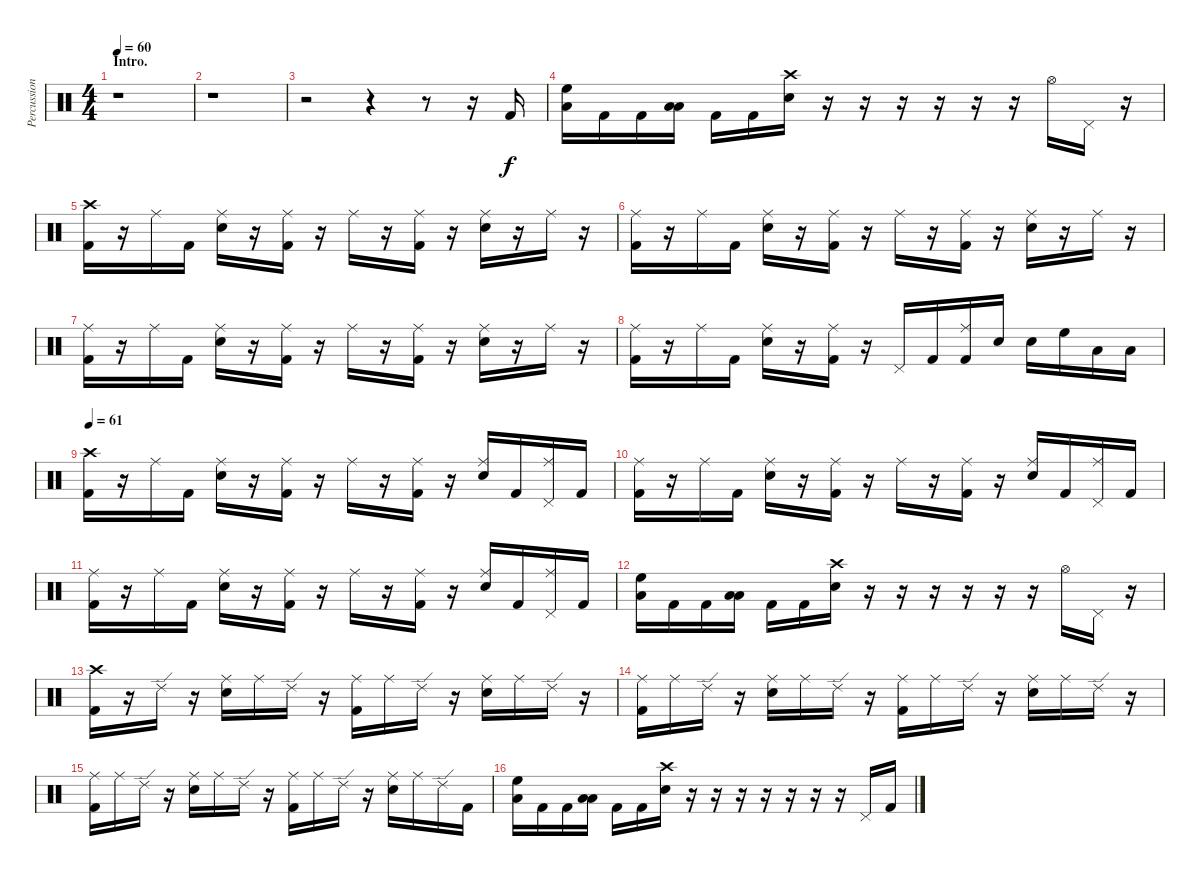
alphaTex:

\track ("Percussion" "Percussion") {instrument percussion}
\staff {score}
\articulation defaults
\ts (4 4)
\section ("" "Intro.")
\tempo 60
\clef neutral
\ks c
r.1{dy f} |
r.1 |
r.2 r.4 r.8 r.16 "Kick (hit) 2".16 |
("High Floor Tom (hit)" "Low Tom (hit)").16 "Kick (hit) 2".16 "Kick (hit) 2".16 ("Low Tom (hit)" "Low Floor Tom (hit)").16 "Kick (hit) 2".16 "Kick (hit) 2".16 ("Crash high (hit)" "Snare (hit) 2").16 r.16 r.16 r.16 r.16 r.16 r.16 "Hi-Hat (open)".16 "Pedal Hi-Hat (hit)".16 r.16 |
("Crash high (hit)" "Kick (hit) 2").16 r.16 "Ride (middle)".16 "Kick (hit) 2".16 ("Ride (middle)" "Snare (hit) 2").16 r.16 ("Ride (middle)" "Kick (hit) 2").16 r.16 "Ride (middle)".16 r.16 ("Ride (middle)" "Kick (hit) 2").16 r.16 ("Ride (middle)" "Snare (hit) 2").16 r.16 "Ride (middle)".16 r.16 |
("Ride (middle)" "Kick (hit) 2").16 r.16 "Ride (middle)".16 "Kick (hit) 2".16 ("Ride (middle)" "Snare (hit) 2").16 r.16 ("Ride (middle)" "Kick (hit) 2").16 r.16 "Ride (middle)".16 r.16 ("Ride (middle)" "Kick (hit) 2").16 r.16 ("Ride (middle)" "Snare (hit) 2").16 r.16 "Ride (middle)".16 r.16 |
("Ride (middle)" "Kick (hit) 2").16 r.16 "Ride (middle)".16 "Kick (hit) 2".16 ("Ride (middle)" "Snare (hit) 2").16 r.16 ("Ride (middle)" "Kick (hit) 2").16 r.16 "Ride (middle)".16 r.16 ("Ride (middle)" "Kick (hit) 2").16 r.16 ("Ride (middle)" "Snare (hit) 2").16 r.16 "Ride (middle)".16 r.16 |
("Ride (middle)" "Kick (hit) 2").16 r.16 "Ride (middle)".16 "Kick (hit) 2".16 ("Ride (middle)" "Snare (hit) 2").16 r.16 ("Ride (middle)" "Kick (hit) 2").16 r.16 "Pedal Hi-Hat (hit)".16 "Kick (hit) 2".16 ("Ride (middle)" "Kick (hit) 2").16 "Snare (hit) 2".16 "Snare (hit) 2".16 "High Floor Tom (hit)".16 "Low Tom (hit)".16 "Low Floor Tom (hit)".16 |
\tempo 61
("Crash high (hit)" "Kick (hit) 2").16 r.16 "Ride (middle)".16 "Kick (hit) 2".16 ("Ride (middle)" "Snare (hit) 2").16 r.16 ("Ride (middle)" "Kick (hit) 2").16 r.16 "Ride (middle)".16 r.16 ("Ride (middle)" "Kick (hit) 2").16 r.16 ("Ride (middle)" "Snare (hit) 2").16 "Kick (hit) 2".16 ("Pedal Hi-Hat (hit)" "Ride (middle)").16 "Kick (hit) 2".16 |
("Ride (middle)" "Kick (hit) 2").16 r.16 "Ride (middle)".16 "Kick (hit) 2".16 ("Ride (middle)" "Snare (hit) 2").16 r.16 ("Ride (middle)" "Kick (hit) 2").16 r.16 "Ride (middle)".16 r.16 ("Ride (middle)" "Kick (hit) 2").16 r.16 ("Ride (middle)" "Snare (hit) 2").16 "Kick (hit) 2".16 ("Pedal Hi-Hat (hit)" "Ride (middle)").16 "Kick (hit) 2".16 |
("Ride (middle)" "Kick (hit) 2").16 r.16 "Ride (middle)".16 "Kick (hit) 2".16 ("Ride (middle)" "Snare (hit) 2").16 r.16 ("Ride (middle)" "Kick (hit) 2").16 r.16 "Ride (middle)".16 r.16 ("Ride (middle)" "Kick (hit) 2").16 r.16 ("Ride (middle)" "Snare (hit) 2").16 "Kick (hit) 2".16 ("Pedal Hi-Hat (hit)" "Ride (middle)").16 "Kick (hit) 2".16 |
("High Floor Tom (hit)" "Low Tom (hit)").16 "Kick (hit) 2".16 "Kick (hit) 2".16 ("Low Tom (hit)" "Low Floor Tom (hit)").16 "Kick (hit) 2".16 "Kick (hit) 2".16 ("Crash high (hit)" "Snare (hit) 2").16 r.16 r.16 r.16 r.16 r.16 r.16 "Hi-Hat (open)".16 "Pedal Hi-Hat (hit)".16 r.16 |
("Crash high (hit)" "Kick (hit) 2").16 r.16 "Ride (edge) 2".16 r.16 ("Ride (middle)" "Snare (hit) 2").16 "Ride (middle)".16 "Ride (edge) 2".16 r.16 ("Ride (middle)" "Kick (hit) 2").16 "Ride (middle)".16 "Ride (edge) 2".16 r.16 ("Ride (middle)" "Snare (hit) 2").16 "Ride (middle)".16 "Ride (edge) 2".16 r.16 |
("Ride (middle)" "Kick (hit) 2").16 "Ride (middle)".16 "Ride (edge) 2".16 r.16 ("Ride (middle)" "Snare (hit) 2").16 "Ride (middle)".16 "Ride (edge) 2".16 r.16 ("Ride (middle)" "Kick (hit) 2").16 "Ride (middle)".16 "Ride (edge) 2".16 r.16 ("Ride (middle)" "Snare (hit) 2").16 "Ride (middle)".16 "Ride (edge) 2".16 r.16 |
("Ride (middle)" "Kick (hit) 2").16 "Ride (middle)".16 "Ride (edge) 2".16 r.16 ("Ride (middle)" "Snare (hit) 2").16 "Ride (middle)".16 "Ride (edge) 2".16 r.16 ("Ride (middle)" "Kick (hit) 2").16 "Ride (middle)".16 "Ride (edge) 2".16 r.16 ("Ride (middle)" "Snare (hit) 2").16 "Ride (middle)".16 "Ride (edge) 2".16 "Kick (hit) 2".16 |
("High Floor Tom (hit)" "Low Tom (hit)").16 "Kick (hit) 2".16 "Kick (hit) 2".16 ("Low Tom (hit)" "Low Floor Tom (hit)").16 "Kick (hit) 2".16 "Kick (hit) 2".16 ("Crash high (hit)" "Snare (hit) 2").16 r.16 r.16 r.16 r.16 r.16 r.16 r.16 "Pedal Hi-Hat (hit)".16 "Kick (hit) 2".16
